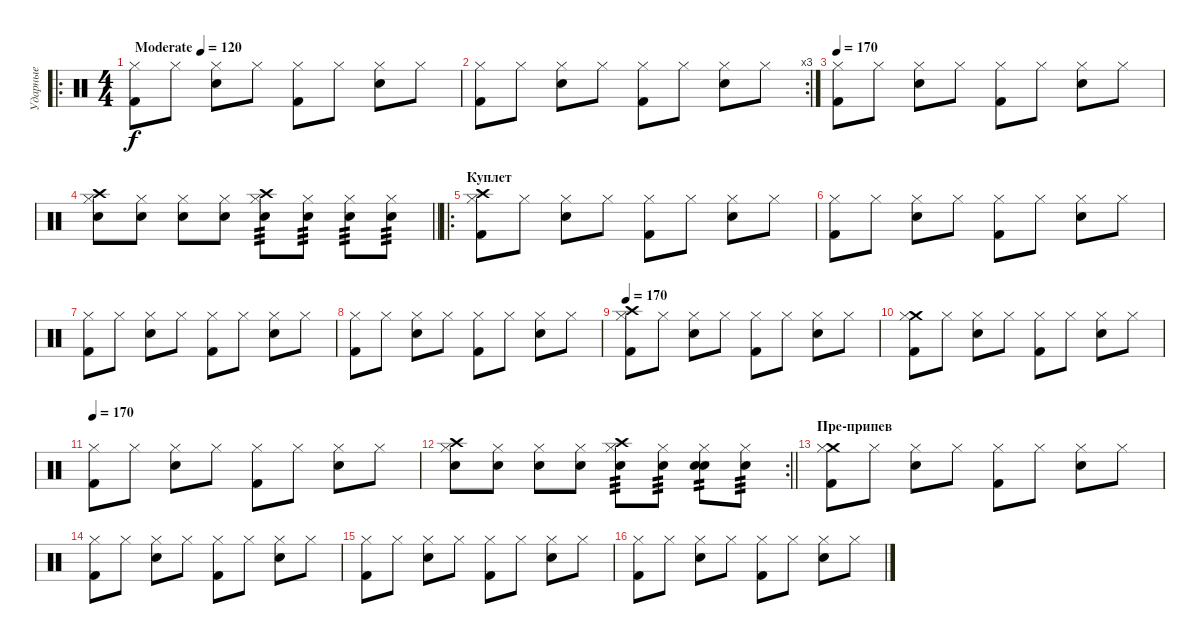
\track ("Ударные" "Ударные") {instrument percussion}
\staff {score}
\articulation defaults
\ro
\ts (4 4)
\tempo (120 "Moderate")
\tempo 170
\tempo (120 "Moderate")
\clef neutral
\ks c
("Kick (hit) 2" "Hi-Hat (closed)").8{dy f} "Hi-Hat (closed)".8 ("Snare (hit) 2" "Hi-Hat (closed)").8 "Hi-Hat (closed)".8 ("Kick (hit) 2" "Hi-Hat (closed)").8 "Hi-Hat (closed)".8 ("Snare (hit) 2" "Hi-Hat (closed)").8 "Hi-Hat (closed)".8 |
\rc 3
("Kick (hit) 2" "Hi-Hat (closed)").8 "Hi-Hat (closed)".8 ("Snare (hit) 2" "Hi-Hat (closed)").8 "Hi-Hat (closed)".8 ("Kick (hit) 2" "Hi-Hat (closed)").8 "Hi-Hat (closed)".8 ("Snare (hit) 2" "Hi-Hat (closed)").8 "Hi-Hat (closed)".8 |
\tempo 170
("Kick (hit) 2" "Hi-Hat (closed)").8 "Hi-Hat (closed)".8 ("Snare (hit) 2" "Hi-Hat (closed)").8 "Hi-Hat (closed)".8 ("Kick (hit) 2" "Hi-Hat (closed)").8 "Hi-Hat (closed)".8 ("Snare (hit) 2" "Hi-Hat (closed)").8 "Hi-Hat (closed)".8 |
\barLineRight lightlight
("Crash high (hit)" "Snare (hit) 2" "Hi-Hat (closed)").8 ("Snare (hit) 2" "Hi-Hat (closed)").8 ("Snare (hit) 2" "Hi-Hat (closed)").8 ("Snare (hit) 2" "Hi-Hat (closed)").8 ("Crash high (hit)" "Snare (hit) 2" "Hi-Hat (closed)").8{tp 3} ("Snare (hit) 2" "Hi-Hat (closed)").8{tp 3} ("Snare (hit) 2" "Hi-Hat (closed)").8{tp 3} ("Snare (hit) 2" "Hi-Hat (closed)").8{tp 3} |
\ro
\section ("" "Куплет")
("Crash high (hit)" "Kick (hit) 2" "Hi-Hat (closed)").8 "Hi-Hat (closed)".8 ("Snare (hit) 2" "Hi-Hat (closed)").8 "Hi-Hat (closed)".8 ("Kick (hit) 2" "Hi-Hat (closed)").8 "Hi-Hat (closed)".8 ("Snare (hit) 2" "Hi-Hat (closed)").8 "Hi-Hat (closed)".8 |
("Kick (hit) 2" "Hi-Hat (closed)").8 "Hi-Hat (closed)".8 ("Snare (hit) 2" "Hi-Hat (closed)").8 "Hi-Hat (closed)".8 ("Kick (hit) 2" "Hi-Hat (closed)").8 "Hi-Hat (closed)".8 ("Snare (hit) 2" "Hi-Hat (closed)").8 "Hi-Hat (closed)".8 |
("Kick (hit) 2" "Hi-Hat (closed)").8 "Hi-Hat (closed)".8 ("Snare (hit) 2" "Hi-Hat (closed)").8 "Hi-Hat (closed)".8 ("Kick (hit) 2" "Hi-Hat (closed)").8 "Hi-Hat (closed)".8 ("Snare (hit) 2" "Hi-Hat (closed)").8 "Hi-Hat (closed)".8 |
("Kick (hit) 2" "Hi-Hat (closed)").8 "Hi-Hat (closed)".8 ("Snare (hit) 2" "Hi-Hat (closed)").8 "Hi-Hat (closed)".8 ("Kick (hit) 2" "Hi-Hat (closed)").8 "Hi-Hat (closed)".8 ("Snare (hit) 2" "Hi-Hat (closed)").8 "Hi-Hat (closed)".8 |
\tempo 170
("Crash high (hit)" "Kick (hit) 2" "Hi-Hat (closed)").8 "Hi-Hat (closed)".8 ("Snare (hit) 2" "Hi-Hat (closed)").8 "Hi-Hat (closed)".8 ("Kick (hit) 2" "Hi-Hat (closed)").8 "Hi-Hat (closed)".8 ("Snare (hit) 2" "Hi-Hat (closed)").8 "Hi-Hat (closed)".8 |
("Crash medium (hit)" "Kick (hit) 2" "Hi-Hat (closed)").8 "Hi-Hat (closed)".8 ("Snare (hit) 2" "Hi-Hat (closed)").8 "Hi-Hat (closed)".8 ("Kick (hit) 2" "Hi-Hat (closed)").8 "Hi-Hat (closed)".8 ("Snare (hit) 2" "Hi-Hat (closed)").8 "Hi-Hat (closed)".8 |
\tempo 170
("Kick (hit) 2" "Hi-Hat (closed)").8 "Hi-Hat (closed)".8 ("Snare (hit) 2" "Hi-Hat (closed)").8 "Hi-Hat (closed)".8 ("Kick (hit) 2" "Hi-Hat (closed)").8 "Hi-Hat (closed)".8 ("Snare (hit) 2" "Hi-Hat (closed)").8 "Hi-Hat (closed)".8 |
\rc 2
\barLineRight lightlight
("Crash high (hit)" "Snare (hit) 2" "Hi-Hat (closed)").8 ("Snare (hit) 2" "Hi-Hat (closed)").8 ("Snare (hit) 2" "Hi-Hat (closed)").8 ("Snare (hit) 2" "Hi-Hat (closed)").8 ("Crash high (hit)" "Snare (hit) 2" "Hi-Hat (closed)").8{tp 3} ("Snare (hit) 2" "Hi-Hat (closed)").8{tp 3} ("Snare (hit) 2" "Snare (hit) 2" "Hi-Hat (closed)").8{tp 2} ("Snare (hit) 2" "Hi-Hat (closed)").8{tp 3} |
\section ("" "Пре-припев")
("Crash medium (hit)" "Kick (hit) 2" "Hi-Hat (closed)").8 "Hi-Hat (closed)".8 ("Snare (hit) 2" "Hi-Hat (closed)").8 "Hi-Hat (closed)".8 ("Kick (hit) 2" "Hi-Hat (closed)").8 "Hi-Hat (closed)".8 ("Snare (hit) 2" "Hi-Hat (closed)").8 "Hi-Hat (closed)".8 |
("Kick (hit) 2" "Hi-Hat (closed)").8 "Hi-Hat (closed)".8 ("Snare (hit) 2" "Hi-Hat (closed)").8 "Hi-Hat (closed)".8 ("Kick (hit) 2" "Hi-Hat (closed)").8 "Hi-Hat (closed)".8 ("Snare (hit) 2" "Hi-Hat (closed)").8 "Hi-Hat (closed)".8 |
("Kick (hit) 2" "Hi-Hat (closed)").8 "Hi-Hat (closed)".8 ("Snare (hit) 2" "Hi-Hat (closed)").8 "Hi-Hat (closed)".8 ("Kick (hit) 2" "Hi-Hat (closed)").8 "Hi-Hat (closed)".8 ("Snare (hit) 2" "Hi-Hat (closed)").8 "Hi-Hat (closed)".8 |
("Kick (hit) 2" "Hi-Hat (closed)").8 "Hi-Hat (closed)".8 ("Snare (hit) 2" "Hi-Hat (closed)").8 "Hi-Hat (closed)".8 ("Kick (hit) 2" "Hi-Hat (closed)").8 "Hi-Hat (closed)".8 ("Snare (hit) 2" "Hi-Hat (closed)").8 "Hi-Hat (closed)".8
